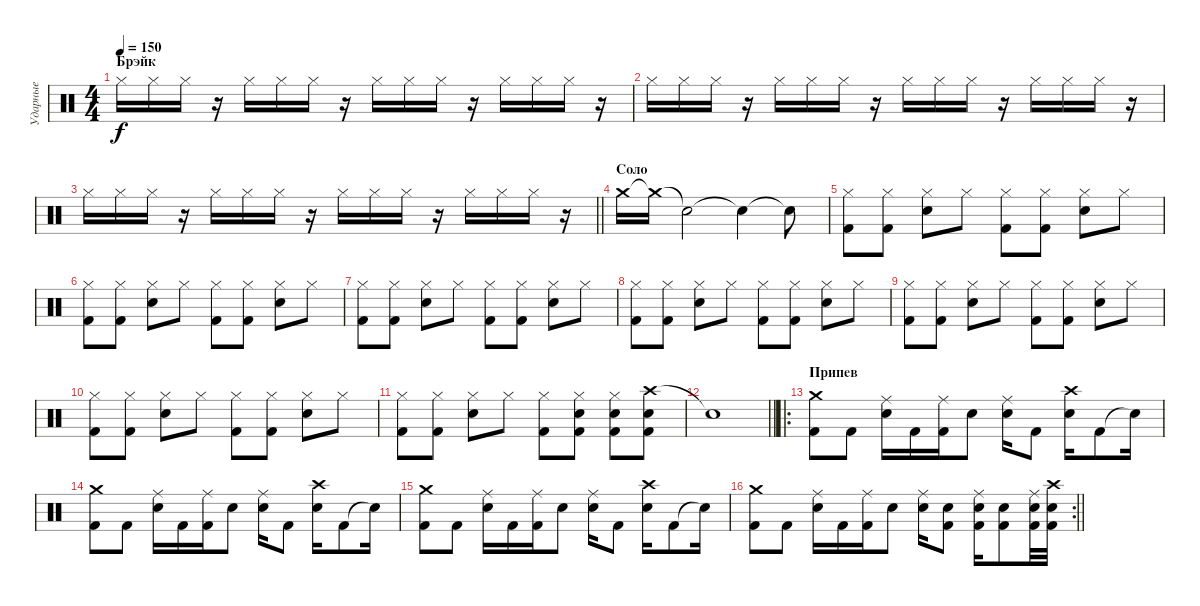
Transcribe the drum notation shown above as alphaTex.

\track ("Ударные" "Ударные") {instrument percussion}
\staff {score}
\articulation defaults
\ts (4 4)
\section ("" "Брэйк")
\tempo 150
\clef neutral
\ks c "Hi-Hat (closed)".16{dy f} "Hi-Hat (closed)".16 "Hi-Hat (closed)".16
r.16 "Hi-Hat (closed)".16 "Hi-Hat (closed)".16 "Hi-Hat (closed)".16 r.16 "Hi-Hat (closed)".16 "Hi-Hat (closed)".16 "Hi-Hat (closed)".16 r.16 "Hi-Hat (closed)".16 "Hi-Hat (closed)".16 "Hi-Hat (closed)".16 r.16 |
"Hi-Hat (closed)".16 "Hi-Hat (closed)".16 "Hi-Hat (closed)".16 r.16 "Hi-Hat (closed)".16 "Hi-Hat (closed)".16 "Hi-Hat (closed)".16 r.16 "Hi-Hat (closed)".16 "Hi-Hat (closed)".16 "Hi-Hat (closed)".16 r.16 "Hi-Hat (closed)".16 "Hi-Hat (closed)".16 "Hi-Hat (closed)".16 r.16 |
\barLineRight lightlight "Hi-Hat (closed)".16 "Hi-Hat (closed)".16 "Hi-Hat (closed)".16
r.16 "Hi-Hat (closed)".16 "Hi-Hat (closed)".16 "Hi-Hat (closed)".16 r.16 "Hi-Hat (closed)".16 "Hi-Hat (closed)".16 "Hi-Hat (closed)".16 r.16 "Hi-Hat (closed)".16 "Hi-Hat (closed)".16 "Hi-Hat (closed)".16 r.16 |
\section ("" "Соло")
"Crash medium (hit)".16 "Crash medium (hit)"{t}.16 "Snare (hit)"{t}.2 "Snare (hit)"{t}.4 "Snare (hit)"{t}.8 |
("Hi-Hat (closed)" "Kick (hit) 2").8 ("Hi-Hat (closed)" "Kick (hit) 2").8 ("Hi-Hat (closed)" "Electric Snare (hit)").8 "Hi-Hat (closed)".8 ("Hi-Hat (closed)" "Kick (hit) 2").8 ("Hi-Hat (closed)" "Kick (hit) 2").8 ("Hi-Hat (closed)" "Electric Snare (hit)").8 "Hi-Hat (closed)".8 |
("Hi-Hat (closed)" "Kick (hit) 2").8 ("Hi-Hat (closed)" "Kick (hit) 2").8 ("Hi-Hat (closed)" "Electric Snare (hit)").8 "Hi-Hat (closed)".8 ("Hi-Hat (closed)" "Kick (hit) 2").8 ("Hi-Hat (closed)" "Kick (hit) 2").8 ("Hi-Hat (closed)" "Electric Snare (hit)").8 "Hi-Hat (closed)".8 |
("Hi-Hat (closed)" "Kick (hit) 2").8 ("Hi-Hat (closed)" "Kick (hit) 2").8 ("Hi-Hat (closed)" "Electric Snare (hit)").8 "Hi-Hat (closed)".8 ("Hi-Hat (closed)" "Kick (hit) 2").8 ("Hi-Hat (closed)" "Kick (hit) 2").8 ("Hi-Hat (closed)" "Electric Snare (hit)").8 "Hi-Hat (closed)".8 |
("Hi-Hat (closed)" "Kick (hit) 2").8 ("Hi-Hat (closed)" "Kick (hit) 2").8 ("Hi-Hat (closed)" "Electric Snare (hit)").8 "Hi-Hat (closed)".8 ("Hi-Hat (closed)" "Kick (hit) 2").8 ("Hi-Hat (closed)" "Kick (hit) 2").8 ("Hi-Hat (closed)" "Electric Snare (hit)").8 "Hi-Hat (closed)".8 |
("Hi-Hat (closed)" "Kick (hit) 2").8 ("Hi-Hat (closed)" "Kick (hit) 2").8 ("Hi-Hat (closed)" "Electric Snare (hit)").8 "Hi-Hat (closed)".8 ("Hi-Hat (closed)" "Kick (hit) 2").8 ("Hi-Hat (closed)" "Kick (hit) 2").8 ("Hi-Hat (closed)" "Electric Snare (hit)").8 "Hi-Hat (closed)".8 |
("Hi-Hat (closed)" "Kick (hit) 2").8 ("Hi-Hat (closed)" "Kick (hit) 2").8 ("Hi-Hat (closed)" "Electric Snare (hit)").8 "Hi-Hat (closed)".8 ("Hi-Hat (closed)" "Kick (hit) 2").8 ("Hi-Hat (closed)" "Kick (hit) 2").8 ("Hi-Hat (closed)" "Electric Snare (hit)").8 "Hi-Hat (closed)".8 |
("Hi-Hat (closed)" "Kick (hit) 2").8 ("Hi-Hat (closed)" "Kick (hit) 2").8 ("Hi-Hat (closed)" "Electric Snare (hit)").8 "Hi-Hat (closed)".8 ("Hi-Hat (closed)" "Kick (hit) 2").8 ("Hi-Hat (closed)" "Electric Snare (hit)" "Kick (hit) 2").8 ("Hi-Hat (closed)" "Electric Snare (hit)" "Kick (hit) 2").8 ("Crash high (hit)" "Electric Snare (hit)" "Kick (hit) 2").8 |
\barLineRight lightlight "Snare (hit)"{t}.1
|
\ro
\section ("" "Припев")
("Crash medium (hit)" "Kick (hit) 2").8 "Kick (hit) 2".8 ("Ride (middle)" "Electric Snare (hit)").16 "Kick (hit) 2".16 ("Ride (middle)" "Kick (hit) 2").16 "Electric Snare (hit)".8 ("Ride (middle)" "Electric Snare (hit)").16 "Kick (hit) 2".8 ("Crash high (hit)" "Electric Snare (hit)").16 "Kick (hit) 2".8 "Snare (hit)"{t}.16 |
("Crash medium (hit)" "Kick (hit) 2").8 "Kick (hit) 2".8 ("Ride (middle)" "Electric Snare (hit)").16 "Kick (hit) 2".16 ("Ride (middle)" "Kick (hit) 2").16 "Electric Snare (hit)".8 ("Ride (middle)" "Electric Snare (hit)").16 "Kick (hit) 2".8 ("Crash high (hit)" "Electric Snare (hit)").16 "Kick (hit) 2".8 "Snare (hit)"{t}.16 |
("Crash medium (hit)" "Kick (hit) 2").8 "Kick (hit) 2".8 ("Ride (middle)" "Electric Snare (hit)").16 "Kick (hit) 2".16 ("Ride (middle)" "Kick (hit) 2").16 "Electric Snare (hit)".8 ("Ride (middle)" "Electric Snare (hit)").16 "Kick (hit) 2".8 ("Crash high (hit)" "Electric Snare (hit)").16 "Kick (hit) 2".8 "Snare (hit)"{t}.16 |
\rc 2
\barLineRight lightlight
("Crash medium (hit)" "Kick (hit) 2").8 "Kick (hit) 2".8 ("Ride (middle)" "Electric Snare (hit)").16 "Kick (hit) 2".16 ("Ride (middle)" "Kick (hit) 2").16 "Electric Snare (hit)".8 ("Ride (middle)" "Electric Snare (hit)").16 ("Electric Snare (hit)" "Kick (hit) 2").8 ("Ride (middle)" "Electric Snare (hit)" "Kick (hit) 2").16 ("Electric Snare (hit)" "Kick (hit) 2").8 ("Ride (middle)" "Electric Snare (hit)" "Kick (hit) 2").32 ("Crash high (hit)" "Electric Snare (hit)" "Kick (hit) 2").32
